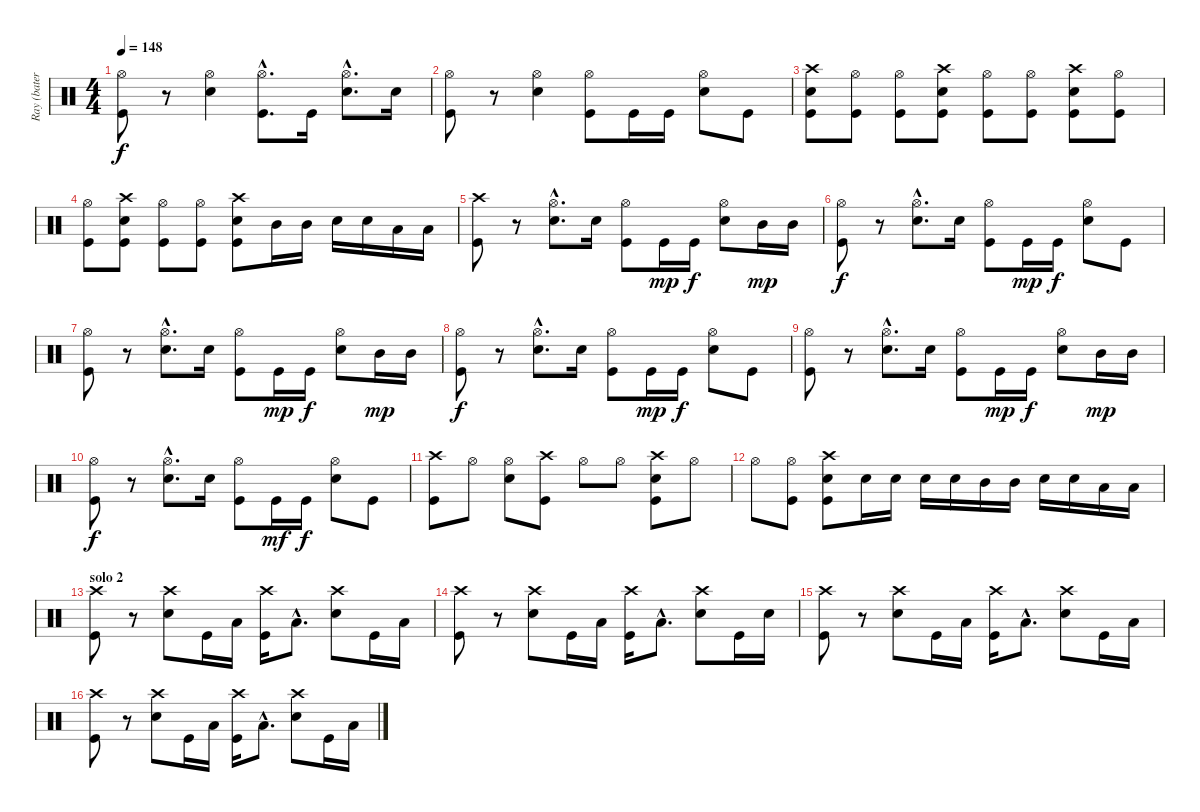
\track ("Ray (batería)" "Ray (bater") {instrument percussion}
\staff {score}
\articulation defaults
\ts (4 4)
\tempo 148
\clef neutral
\ks c
("Hi-Hat (open)" "Kick (hit)").8{dy f} r.8 ("Hi-Hat (open)" "Snare (hit) 2").4 ("Hi-Hat (open)"{hac} "Kick (hit)"{hac}).8{d} "Kick (hit)".16 ("Hi-Hat (open)"{hac} "Snare (hit) 2"{hac}).8{d} "Snare (hit) 2".16 |
("Hi-Hat (open)" "Kick (hit)").8 r.8 ("Hi-Hat (open)" "Snare (hit) 2").4 ("Hi-Hat (open)" "Kick (hit)").8 "Kick (hit)".16 "Kick (hit)".16 ("Hi-Hat (open)" "Snare (hit) 2").8 "Kick (hit)".8 |
("Crash high (hit)" "Snare (hit) 2" "Kick (hit)").8 ("Hi-Hat (open)" "Kick (hit)").8 ("Hi-Hat (open)" "Kick (hit)").8 ("Crash high (hit)" "Snare (hit) 2" "Kick (hit)").8 ("Hi-Hat (open)" "Kick (hit)").8 ("Hi-Hat (open)" "Kick (hit)").8 ("Crash high (hit)" "Snare (hit) 2" "Kick (hit)").8 ("Hi-Hat (open)" "Kick (hit)").8 |
("Hi-Hat (open)" "Kick (hit)").8 ("Crash high (hit)" "Snare (hit) 2" "Kick (hit)").8 ("Hi-Hat (open)" "Kick (hit)").8 ("Hi-Hat (open)" "Kick (hit)").8 ("Crash high (hit)" "Snare (hit) 2" "Kick (hit)").8 "Mid Tom (hit)".16 "Mid Tom (hit)".16 "Snare (hit) 2".16 "Snare (hit) 2".16 "Low Tom (hit)".16 "Low Tom (hit)".16 |
("Crash high (hit)" "Kick (hit)").8 r.8 ("Hi-Hat (open)"{hac} "Snare (hit) 2"{hac}).8{d} "Snare (hit) 2".16 ("Hi-Hat (open)" "Kick (hit)").8 "Kick (hit)".16{dy mp} "Kick (hit)".16{dy f} ("Hi-Hat (open)" "Snare (hit) 2").8 "Mid Tom (hit)".16{dy mp} "Mid Tom (hit)".16 |
("Hi-Hat (open)" "Kick (hit)").8{dy f} r.8 ("Hi-Hat (open)"{hac} "Snare (hit) 2"{hac}).8{d} "Snare (hit) 2".16 ("Hi-Hat (open)" "Kick (hit)").8 "Kick (hit)".16{dy mp} "Kick (hit)".16{dy f} ("Hi-Hat (open)" "Snare (hit) 2").8 "Kick (hit)".8 |
("Hi-Hat (open)" "Kick (hit)").8 r.8 ("Hi-Hat (open)"{hac} "Snare (hit) 2"{hac}).8{d} "Snare (hit) 2".16 ("Hi-Hat (open)" "Kick (hit)").8 "Kick (hit)".16{dy mp} "Kick (hit)".16{dy f} ("Hi-Hat (open)" "Snare (hit) 2").8 "Mid Tom (hit)".16{dy mp} "Mid Tom (hit)".16 |
("Hi-Hat (open)" "Kick (hit)").8{dy f} r.8 ("Hi-Hat (open)"{hac} "Snare (hit) 2"{hac}).8{d} "Snare (hit) 2".16 ("Hi-Hat (open)" "Kick (hit)").8 "Kick (hit)".16{dy mp} "Kick (hit)".16{dy f} ("Hi-Hat (open)" "Snare (hit) 2").8 "Kick (hit)".8 |
("Hi-Hat (open)" "Kick (hit)").8 r.8 ("Hi-Hat (open)"{hac} "Snare (hit) 2"{hac}).8{d} "Snare (hit) 2".16 ("Hi-Hat (open)" "Kick (hit)").8 "Kick (hit)".16{dy mp} "Kick (hit)".16{dy f} ("Hi-Hat (open)" "Snare (hit) 2").8 "Mid Tom (hit)".16{dy mp} "Mid Tom (hit)".16 |
("Hi-Hat (open)" "Kick (hit)").8{dy f} r.8 ("Hi-Hat (open)"{hac} "Snare (hit) 2"{hac}).8{d} "Snare (hit) 2".16 ("Hi-Hat (open)" "Kick (hit)").8 "Kick (hit)".16{dy mf} "Kick (hit)".16{dy f} ("Hi-Hat (open)" "Snare (hit) 2").8 "Kick (hit)".8 |
("Crash high (hit)" "Kick (hit)").8 "Hi-Hat (open)".8 ("Hi-Hat (open)" "Snare (hit) 2").8 ("Crash high (hit)" "Kick (hit)").8 "Hi-Hat (open)".8 "Hi-Hat (open)".8 ("Crash high (hit)" "Snare (hit) 2" "Kick (hit)").8 "Hi-Hat (open)".8 |
"Hi-Hat (open)".8 ("Hi-Hat (open)" "Kick (hit)").8 ("Crash high (hit)" "Snare (hit) 2" "Kick (hit)").8 "Snare (hit) 2".16 "Snare (hit) 2".16 "Snare (hit) 2".16 "Snare (hit) 2".16 "Mid Tom (hit)".16 "Mid Tom (hit)".16 "Snare (hit) 2".16 "Snare (hit) 2".16 "Low Tom (hit)".16 "Low Tom (hit)".16 |
\section ("" "solo 2")
("Crash high (hit)" "Kick (hit)").8 r.8 ("Crash high (hit)" "Snare (hit) 2").8 "Kick (hit)".16 "Low Tom (hit)".16 ("Crash high (hit)" "Kick (hit)").16 "Low Tom (hit)"{hac}.8{d} ("Crash high (hit)" "Snare (hit) 2").8 "Kick (hit)".16 "Low Tom (hit)".16 |
("Crash high (hit)" "Kick (hit)").8 r.8 ("Crash high (hit)" "Snare (hit) 2").8 "Kick (hit)".16 "Low Tom (hit)".16 ("Crash high (hit)" "Kick (hit)").16 "Low Tom (hit)"{hac}.8{d} ("Crash high (hit)" "Snare (hit) 2").8 "Kick (hit)".16 "Snare (hit) 2".16 |
("Crash high (hit)" "Kick (hit)").8 r.8 ("Crash high (hit)" "Snare (hit) 2").8 "Kick (hit)".16 "Low Tom (hit)".16 ("Crash high (hit)" "Kick (hit)").16 "Low Tom (hit)"{hac}.8{d} ("Crash high (hit)" "Snare (hit) 2").8 "Kick (hit)".16 "Low Tom (hit)".16 |
("Crash high (hit)" "Kick (hit)").8 r.8 ("Crash high (hit)" "Snare (hit) 2").8 "Kick (hit)".16 "Low Tom (hit)".16 ("Crash high (hit)" "Kick (hit)").16 "Low Tom (hit)"{hac}.8{d} ("Crash high (hit)" "Snare (hit) 2").8 "Kick (hit)".16 "Low Tom (hit)".16
